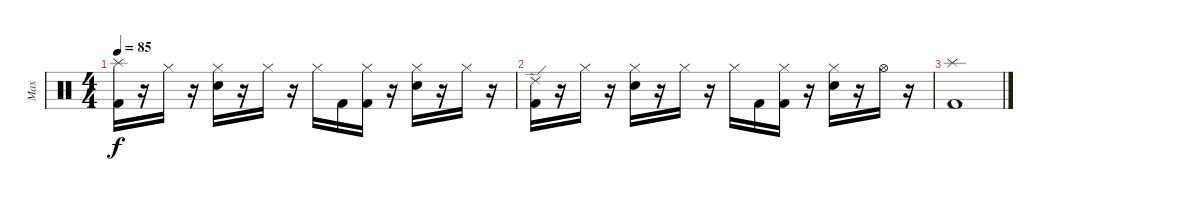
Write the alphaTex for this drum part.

\track ("Max" "Max") {instrument percussion}
\staff {score}
\articulation defaults
\ts (4 4)
\tempo 85
\clef neutral
\ks c
("Splash (hit)" "Kick (hit) 2").16{dy f} r.16 "Hi-Hat (closed)".16 r.16 ("Hi-Hat (closed)" "Electric Snare (hit)").16 r.16 "Hi-Hat (closed)".16 r.16 "Hi-Hat (closed)".16 "Kick (hit) 2".16 ("Hi-Hat (closed)" "Kick (hit) 2").16 r.16 ("Hi-Hat (closed)" "Electric Snare (hit)").16 r.16 "Hi-Hat (closed)".16 r.16 |
("Ride (edge) 2" "Kick (hit) 2").16 r.16 "Hi-Hat (closed)".16 r.16 ("Hi-Hat (closed)" "Electric Snare (hit)").16 r.16 "Hi-Hat (closed)".16 r.16 "Hi-Hat (closed)".16 "Kick (hit) 2".16 ("Hi-Hat (closed)" "Kick (hit) 2").16 r.16 ("Hi-Hat (closed)" "Electric Snare (hit)").16 r.16 "Hi-Hat (open)".16 r.16 |
("Splash (hit)" "Kick (hit) 2").1
